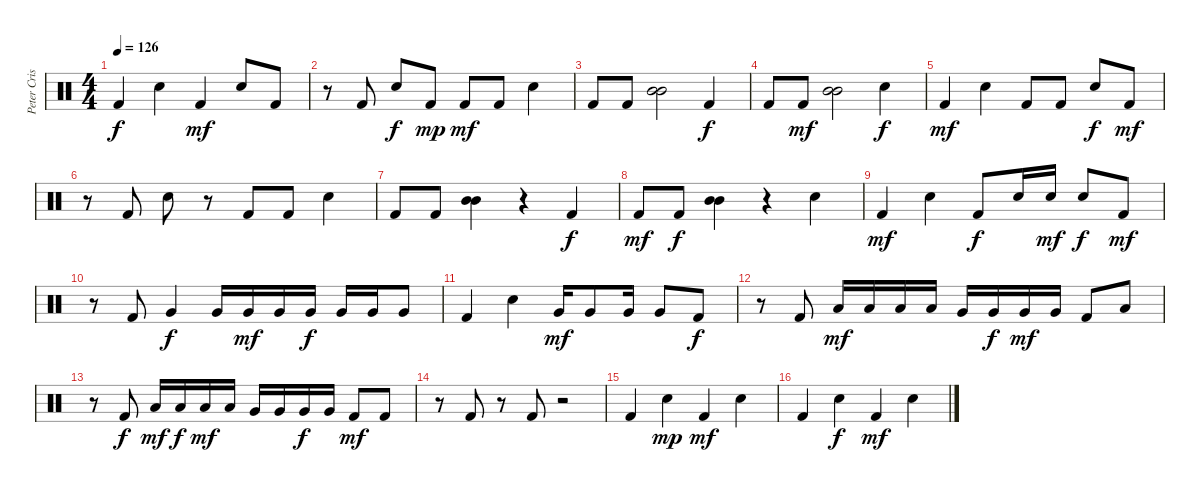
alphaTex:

\track ("Peter Criss" "Peter Cris") {instrument percussion}
\staff {score}
\articulation defaults
\ts (4 4)
\tempo 126
\clef neutral
\ks c "Kick (hit) 2".4{dy f} "Electric Snare (hit)".4 "Kick (hit) 2".4{dy mf} "Electric Snare (hit)".8 "Kick (hit) 2".8
|
r.8 "Kick (hit) 2".8 "Electric Snare (hit)".8{dy f} "Kick (hit) 2".8{dy mp} "Kick (hit) 2".8{dy mf} "Kick (hit) 2".8 "Electric Snare (hit)".4 |
"Kick (hit) 2".8 "Kick (hit) 2".8 ("Mid Tom (hit)" "Mid Tom (hit)").2 "Kick (hit) 2".4{dy f} |
"Kick (hit) 2".8 "Kick (hit) 2".8{dy mf} ("Mid Tom (hit)" "Mid Tom (hit)").2 "Electric Snare (hit)".4{dy f} |
"Kick (hit) 2".4{dy mf} "Electric Snare (hit)".4 "Kick (hit) 2".8 "Kick (hit) 2".8 "Electric Snare (hit)".8{dy f} "Kick (hit) 2".8{dy mf} |
r.8 "Kick (hit) 2".8 "Electric Snare (hit)".8 r.8 "Kick (hit) 2".8 "Kick (hit) 2".8 "Electric Snare (hit)".4 |
"Kick (hit) 2".8 "Kick (hit) 2".8 ("Mid Tom (hit)" "Mid Tom (hit)").4 r.4 "Kick (hit) 2".4{dy f} |
"Kick (hit) 2".8{dy mf} "Kick (hit) 2".8{dy f} ("Mid Tom (hit)" "Mid Tom (hit)").4 r.4 "Electric Snare (hit)".4 |
"Kick (hit) 2".4{dy mf} "Electric Snare (hit)".4 "Kick (hit) 2".8{dy f} "Electric Snare (hit)".16 "Electric Snare (hit)".16{dy mf} "Electric Snare (hit)".8{dy f} "Kick (hit) 2".8{dy mf} |
r.8 "Kick (hit) 2".8 "Very Low Tom (hit)".4{dy f} "Very Low Tom (hit)".16 "Very Low Tom (hit)".16{dy mf} "Very Low Tom (hit)".16 "Very Low Tom (hit)".16{dy f} "Very Low Tom (hit)".16 "Very Low Tom (hit)".16 "Very Low Tom (hit)".8 |
"Kick (hit) 2".4 "Electric Snare (hit)".4 "Very Low Tom (hit)".16{dy mf} "Very Low Tom (hit)".8 "Very Low Tom (hit)".16 "Very Low Tom (hit)".8 "Kick (hit) 2".8{dy f} |
r.8 "Kick (hit) 2".8 "Low Tom (hit)".16{dy mf} "Low Tom (hit)".16 "Low Tom (hit)".16 "Low Tom (hit)".16 "Very Low Tom (hit)".16 "Very Low Tom (hit)".16{dy f} "Very Low Tom (hit)".16{dy mf} "Very Low Tom (hit)".16 "Kick (hit) 2".8 "Low Tom (hit)".8 |
r.8 "Kick (hit) 2".8{dy f} "Low Tom (hit)".16{dy mf} "Low Tom (hit)".16{dy f} "Low Tom (hit)".16{dy mf} "Low Tom (hit)".16 "Very Low Tom (hit)".16 "Very Low Tom (hit)".16 "Very Low Tom (hit)".16{dy f} "Very Low Tom (hit)".16 "Kick (hit) 2".8{dy mf} "Kick (hit) 2".8 |
r.8 "Kick (hit) 2".8 r.8 "Kick (hit) 2".8 r.2 |
"Kick (hit) 2".4 "Electric Snare (hit)".4{dy mp} "Kick (hit) 2".4{dy mf} "Electric Snare (hit)".4 |
"Kick (hit) 2".4 "Electric Snare (hit)".4{dy f} "Kick (hit) 2".4{dy mf} "Electric Snare (hit)".4
